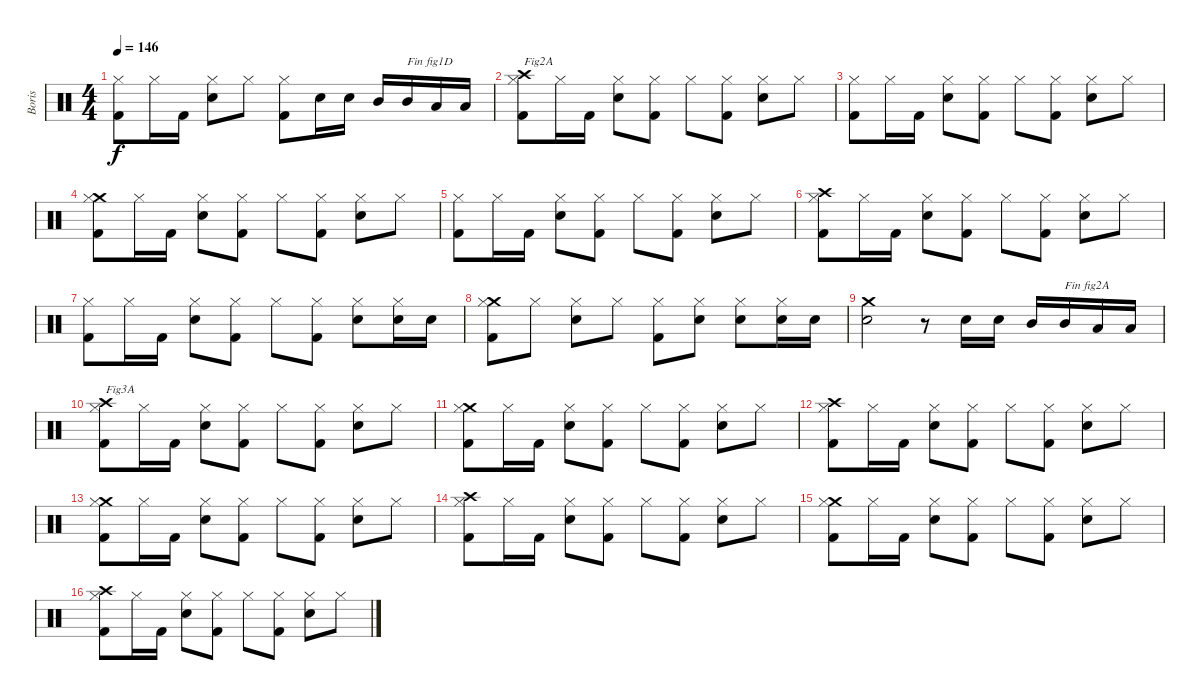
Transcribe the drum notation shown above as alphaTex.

\track ("Boris" "Boris") {instrument percussion}
\staff {score}
\articulation defaults
\ts (4 4)
\tempo 146
\clef neutral
\ks c
("Kick (hit) 2" "Hi-Hat (closed)").8{dy f} "Hi-Hat (closed)".16 "Kick (hit) 2".16 ("Electric Snare (hit)" "Hi-Hat (closed)").8 "Hi-Hat (closed)".8 ("Kick (hit) 2" "Hi-Hat (closed)").8 "Electric Snare (hit)".16 "Electric Snare (hit)".16 "Mid Tom (hit)".16 "Mid Tom (hit)".16{txt "Fin fig1D"} "Low Tom (hit)".16 "Low Tom (hit)".16 |
("Kick (hit) 2" "Crash high (hit)" "Hi-Hat (closed)").8{txt "Fig2A"} "Hi-Hat (closed)".16 "Kick (hit) 2".16 ("Electric Snare (hit)" "Hi-Hat (closed)").8 ("Kick (hit) 2" "Hi-Hat (closed)").8 "Hi-Hat (closed)".8 ("Kick (hit) 2" "Hi-Hat (closed)").8 ("Electric Snare (hit)" "Hi-Hat (closed)").8 "Hi-Hat (closed)".8 |
("Kick (hit) 2" "Hi-Hat (closed)").8 "Hi-Hat (closed)".16 "Kick (hit) 2".16 ("Electric Snare (hit)" "Hi-Hat (closed)").8 ("Kick (hit) 2" "Hi-Hat (closed)").8 "Hi-Hat (closed)".8 ("Kick (hit) 2" "Hi-Hat (closed)").8 ("Electric Snare (hit)" "Hi-Hat (closed)").8 "Hi-Hat (closed)".8 |
("Kick (hit) 2" "Crash medium (hit)" "Hi-Hat (closed)").8 "Hi-Hat (closed)".16 "Kick (hit) 2".16 ("Electric Snare (hit)" "Hi-Hat (closed)").8 ("Kick (hit) 2" "Hi-Hat (closed)").8 "Hi-Hat (closed)".8 ("Kick (hit) 2" "Hi-Hat (closed)").8 ("Electric Snare (hit)" "Hi-Hat (closed)").8 "Hi-Hat (closed)".8 |
("Kick (hit) 2" "Hi-Hat (closed)").8 "Hi-Hat (closed)".16 "Kick (hit) 2".16 ("Electric Snare (hit)" "Hi-Hat (closed)").8 ("Kick (hit) 2" "Hi-Hat (closed)").8 "Hi-Hat (closed)".8 ("Kick (hit) 2" "Hi-Hat (closed)").8 ("Electric Snare (hit)" "Hi-Hat (closed)").8 "Hi-Hat (closed)".8 |
("Kick (hit) 2" "Crash high (hit)" "Hi-Hat (closed)").8 "Hi-Hat (closed)".16 "Kick (hit) 2".16 ("Electric Snare (hit)" "Hi-Hat (closed)").8 ("Kick (hit) 2" "Hi-Hat (closed)").8 "Hi-Hat (closed)".8 ("Kick (hit) 2" "Hi-Hat (closed)").8 ("Electric Snare (hit)" "Hi-Hat (closed)").8 "Hi-Hat (closed)".8 |
("Kick (hit) 2" "Hi-Hat (closed)").8 "Hi-Hat (closed)".16 "Kick (hit) 2".16 ("Electric Snare (hit)" "Hi-Hat (closed)").8 ("Kick (hit) 2" "Hi-Hat (closed)").8 "Hi-Hat (closed)".8 ("Kick (hit) 2" "Hi-Hat (closed)").8 ("Electric Snare (hit)" "Hi-Hat (closed)").8 ("Electric Snare (hit)" "Hi-Hat (closed)").16 "Electric Snare (hit)".16 |
("Kick (hit) 2" "Crash medium (hit)" "Hi-Hat (closed)").8 "Hi-Hat (closed)".8 ("Electric Snare (hit)" "Hi-Hat (closed)").8 "Hi-Hat (closed)".8 ("Kick (hit) 2" "Hi-Hat (closed)").8 ("Electric Snare (hit)" "Hi-Hat (closed)").8 ("Electric Snare (hit)" "Hi-Hat (closed)").8 ("Electric Snare (hit)" "Hi-Hat (closed)").16 "Electric Snare (hit)".16 |
("Electric Snare (hit)" "Crash medium (hit)").2 r.8 "Electric Snare (hit)".16 "Electric Snare (hit)".16 "Mid Tom (hit)".16 "Mid Tom (hit)".16{txt "Fin fig2A"} "Low Tom (hit)".16 "Low Tom (hit)".16 |
("Kick (hit) 2" "Crash high (hit)" "Hi-Hat (closed)").8{txt "Fig3A"} "Hi-Hat (closed)".16 "Kick (hit) 2".16 ("Electric Snare (hit)" "Hi-Hat (closed)").8 ("Kick (hit) 2" "Hi-Hat (closed)").8 "Hi-Hat (closed)".8 ("Kick (hit) 2" "Hi-Hat (closed)").8 ("Electric Snare (hit)" "Hi-Hat (closed)").8 "Hi-Hat (closed)".8 |
("Kick (hit) 2" "Crash medium (hit)" "Hi-Hat (closed)").8 "Hi-Hat (closed)".16 "Kick (hit) 2".16 ("Electric Snare (hit)" "Hi-Hat (closed)").8 ("Kick (hit) 2" "Hi-Hat (closed)").8 "Hi-Hat (closed)".8 ("Kick (hit) 2" "Hi-Hat (closed)").8 ("Electric Snare (hit)" "Hi-Hat (closed)").8 "Hi-Hat (closed)".8 |
("Kick (hit) 2" "Crash high (hit)" "Hi-Hat (closed)").8 "Hi-Hat (closed)".16 "Kick (hit) 2".16 ("Electric Snare (hit)" "Hi-Hat (closed)").8 ("Kick (hit) 2" "Hi-Hat (closed)").8 "Hi-Hat (closed)".8 ("Kick (hit) 2" "Hi-Hat (closed)").8 ("Electric Snare (hit)" "Hi-Hat (closed)").8 "Hi-Hat (closed)".8 |
("Kick (hit) 2" "Crash medium (hit)" "Hi-Hat (closed)").8 "Hi-Hat (closed)".16 "Kick (hit) 2".16 ("Electric Snare (hit)" "Hi-Hat (closed)").8 ("Kick (hit) 2" "Hi-Hat (closed)").8 "Hi-Hat (closed)".8 ("Kick (hit) 2" "Hi-Hat (closed)").8 ("Electric Snare (hit)" "Hi-Hat (closed)").8 "Hi-Hat (closed)".8 |
("Kick (hit) 2" "Crash high (hit)" "Hi-Hat (closed)").8 "Hi-Hat (closed)".16 "Kick (hit) 2".16 ("Electric Snare (hit)" "Hi-Hat (closed)").8 ("Kick (hit) 2" "Hi-Hat (closed)").8 "Hi-Hat (closed)".8 ("Kick (hit) 2" "Hi-Hat (closed)").8 ("Electric Snare (hit)" "Hi-Hat (closed)").8 "Hi-Hat (closed)".8 |
("Kick (hit) 2" "Crash medium (hit)" "Hi-Hat (closed)").8 "Hi-Hat (closed)".16 "Kick (hit) 2".16 ("Electric Snare (hit)" "Hi-Hat (closed)").8 ("Kick (hit) 2" "Hi-Hat (closed)").8 "Hi-Hat (closed)".8 ("Kick (hit) 2" "Hi-Hat (closed)").8 ("Electric Snare (hit)" "Hi-Hat (closed)").8 "Hi-Hat (closed)".8 |
("Kick (hit) 2" "Crash high (hit)" "Hi-Hat (closed)").8 "Hi-Hat (closed)".16 "Kick (hit) 2".16 ("Electric Snare (hit)" "Hi-Hat (closed)").8 ("Kick (hit) 2" "Hi-Hat (closed)").8 "Hi-Hat (closed)".8 ("Kick (hit) 2" "Hi-Hat (closed)").8 ("Electric Snare (hit)" "Hi-Hat (closed)").8 "Hi-Hat (closed)".8
